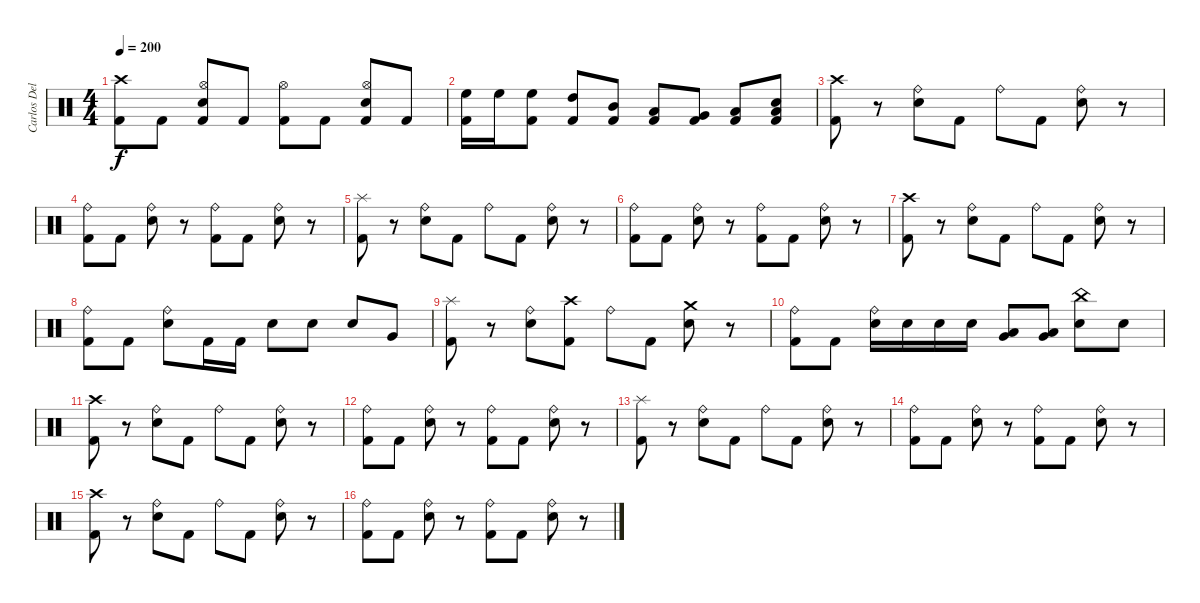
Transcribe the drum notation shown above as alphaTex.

\track ("Carlos Delgado" "Carlos Del") {instrument percussion}
\staff {score}
\articulation defaults
\ts (4 4)
\tempo 200
\clef neutral
\ks c
("Kick (hit) 2" "Crash high (hit)").8{dy f} "Kick (hit) 2".8 ("Kick (hit) 2" "Hi-Hat (open)" "Electric Snare (hit)").8 "Kick (hit) 2".8 ("Kick (hit) 2" "Hi-Hat (open)").8 "Kick (hit) 2".8 ("Kick (hit) 2" "Electric Snare (hit)" "Hi-Hat (open)").8 "Kick (hit) 2".8 |
("Kick (hit) 2" "High Floor Tom (hit)").16 "High Floor Tom (hit)".16 ("Kick (hit) 2" "High Floor Tom (hit)").8 ("High Tom (hit)" "Kick (hit) 2").8 ("Kick (hit) 2" "Mid Tom (hit)").8 ("Low Tom (hit)" "Kick (hit) 2").8 ("Very Low Tom (hit)" "Kick (hit) 2").8 ("Low Floor Tom (hit)" "Kick (hit) 2").8 ("Electric Snare (hit)" "Low Floor Tom (hit)" "Kick (hit) 2").8 |
("Crash high (hit)" "Kick (hit) 2").8 r.8 ("Ride (bell)" "Electric Snare (hit)").8 "Kick (hit) 2".8 "Ride (bell)".8 "Kick (hit) 2".8 ("Electric Snare (hit)" "Ride (bell)").8 r.8 |
("Ride (bell)" "Kick (hit) 2").8 "Kick (hit) 2".8 ("Ride (bell)" "Electric Snare (hit)").8 r.8 ("Ride (bell)" "Kick (hit) 2").8 "Kick (hit) 2".8 ("Ride (bell)" "Electric Snare (hit)").8 r.8 |
("Splash (hit)" "Kick (hit) 2").8 r.8 ("Ride (bell)" "Electric Snare (hit)").8 "Kick (hit) 2".8 "Ride (bell)".8 "Kick (hit) 2".8 ("Electric Snare (hit)" "Ride (bell)").8 r.8 |
("Ride (bell)" "Kick (hit) 2").8 "Kick (hit) 2".8 ("Ride (bell)" "Electric Snare (hit)").8 r.8 ("Ride (bell)" "Kick (hit) 2").8 "Kick (hit) 2".8 ("Ride (bell)" "Electric Snare (hit)").8 r.8 |
("Crash high (hit)" "Kick (hit) 2").8 r.8 ("Ride (bell)" "Electric Snare (hit)").8 "Kick (hit) 2".8 "Ride (bell)".8 "Kick (hit) 2".8 ("Electric Snare (hit)" "Ride (bell)").8 r.8 |
("Ride (bell)" "Kick (hit) 2").8 "Kick (hit) 2".8 ("Ride (bell)" "Electric Snare (hit)").8 "Kick (hit) 2".16 "Kick (hit) 2".16 "Electric Snare (hit)".8 "Electric Snare (hit)".8 "Electric Snare (hit)".8 "Very Low Tom (hit)".8 |
("Splash (hit)" "Kick (hit) 2").8 r.8 ("Ride (bell)" "Electric Snare (hit)").8 ("Crash high (hit)" "Kick (hit) 2").8 "Ride (bell)".8 "Kick (hit) 2".8 ("Electric Snare (hit)" "Crash medium (hit)").8 r.8 |
("Ride (bell)" "Kick (hit) 2").8 "Kick (hit) 2".8 ("Ride (bell)" "Electric Snare (hit)").16 "Electric Snare (hit)".16 "Electric Snare (hit)".16 "Electric Snare (hit)".16 ("Very Low Tom (hit)" "Low Floor Tom (hit)").8 ("Very Low Tom (hit)" "Low Floor Tom (hit)").8 ("China (hit)" "Electric Snare (hit)").8 "Electric Snare (hit)".8 |
("Crash high (hit)" "Kick (hit) 2").8 r.8 ("Ride (bell)" "Electric Snare (hit)").8 "Kick (hit) 2".8 "Ride (bell)".8 "Kick (hit) 2".8 ("Electric Snare (hit)" "Ride (bell)").8 r.8 |
("Ride (bell)" "Kick (hit) 2").8 "Kick (hit) 2".8 ("Ride (bell)" "Electric Snare (hit)").8 r.8 ("Ride (bell)" "Kick (hit) 2").8 "Kick (hit) 2".8 ("Ride (bell)" "Electric Snare (hit)").8 r.8 |
("Splash (hit)" "Kick (hit) 2").8 r.8 ("Ride (bell)" "Electric Snare (hit)").8 "Kick (hit) 2".8 "Ride (bell)".8 "Kick (hit) 2".8 ("Electric Snare (hit)" "Ride (bell)").8 r.8 |
("Ride (bell)" "Kick (hit) 2").8 "Kick (hit) 2".8 ("Ride (bell)" "Electric Snare (hit)").8 r.8 ("Ride (bell)" "Kick (hit) 2").8 "Kick (hit) 2".8 ("Ride (bell)" "Electric Snare (hit)").8 r.8 |
("Crash high (hit)" "Kick (hit) 2").8 r.8 ("Ride (bell)" "Electric Snare (hit)").8 "Kick (hit) 2".8 "Ride (bell)".8 "Kick (hit) 2".8 ("Electric Snare (hit)" "Ride (bell)").8 r.8 |
("Ride (bell)" "Kick (hit) 2").8 "Kick (hit) 2".8 ("Ride (bell)" "Electric Snare (hit)").8 r.8 ("Ride (bell)" "Kick (hit) 2").8 "Kick (hit) 2".8 ("Ride (bell)" "Electric Snare (hit)").8 r.8
